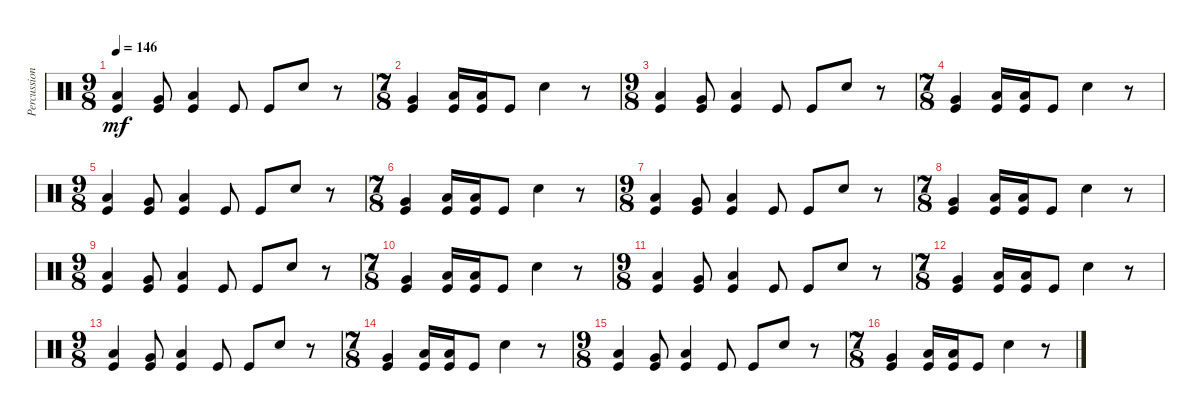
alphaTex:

\track ("Percussion" "Percussion") {instrument percussion}
\staff {score}
\articulation defaults
\ts (9 8)
\tempo 146
\clef neutral
\ks c
("Low Tom (hit)" "Kick (hit)").4{dy mf} ("Very Low Tom (hit)" "Kick (hit)").8 ("Low Floor Tom (hit)" "Kick (hit)").4 "Kick (hit)".8 "Kick (hit)".8 "Snare (hit) 2".8 r.8 |
\ts (7 8)
("Very Low Tom (hit)" "Kick (hit)").4 ("Low Floor Tom (hit)" "Kick (hit)").16 ("Low Floor Tom (hit)" "Kick (hit)").16 "Kick (hit)".8 "Snare (hit) 2".4 r.8 |
\ts (9 8)
("Low Tom (hit)" "Kick (hit)").4 ("Very Low Tom (hit)" "Kick (hit)").8 ("Low Floor Tom (hit)" "Kick (hit)").4 "Kick (hit)".8 "Kick (hit)".8 "Snare (hit) 2".8 r.8 |
\ts (7 8)
("Very Low Tom (hit)" "Kick (hit)").4 ("Low Floor Tom (hit)" "Kick (hit)").16 ("Low Floor Tom (hit)" "Kick (hit)").16 "Kick (hit)".8 "Snare (hit) 2".4 r.8 |
\ts (9 8)
("Low Tom (hit)" "Kick (hit)").4 ("Very Low Tom (hit)" "Kick (hit)").8 ("Low Floor Tom (hit)" "Kick (hit)").4 "Kick (hit)".8 "Kick (hit)".8 "Snare (hit) 2".8 r.8 |
\ts (7 8)
("Very Low Tom (hit)" "Kick (hit)").4 ("Low Floor Tom (hit)" "Kick (hit)").16 ("Low Floor Tom (hit)" "Kick (hit)").16 "Kick (hit)".8 "Snare (hit) 2".4 r.8 |
\ts (9 8)
("Low Tom (hit)" "Kick (hit)").4 ("Very Low Tom (hit)" "Kick (hit)").8 ("Low Floor Tom (hit)" "Kick (hit)").4 "Kick (hit)".8 "Kick (hit)".8 "Snare (hit) 2".8 r.8 |
\ts (7 8)
("Very Low Tom (hit)" "Kick (hit)").4 ("Low Floor Tom (hit)" "Kick (hit)").16 ("Low Floor Tom (hit)" "Kick (hit)").16 "Kick (hit)".8 "Snare (hit) 2".4 r.8 |
\ts (9 8)
("Low Tom (hit)" "Kick (hit)").4 ("Very Low Tom (hit)" "Kick (hit)").8 ("Low Floor Tom (hit)" "Kick (hit)").4 "Kick (hit)".8 "Kick (hit)".8 "Snare (hit) 2".8 r.8 |
\ts (7 8)
("Very Low Tom (hit)" "Kick (hit)").4 ("Low Floor Tom (hit)" "Kick (hit)").16 ("Low Floor Tom (hit)" "Kick (hit)").16 "Kick (hit)".8 "Snare (hit) 2".4 r.8 |
\ts (9 8)
("Low Tom (hit)" "Kick (hit)").4 ("Very Low Tom (hit)" "Kick (hit)").8 ("Low Floor Tom (hit)" "Kick (hit)").4 "Kick (hit)".8 "Kick (hit)".8 "Snare (hit) 2".8 r.8 |
\ts (7 8)
("Very Low Tom (hit)" "Kick (hit)").4 ("Low Floor Tom (hit)" "Kick (hit)").16 ("Low Floor Tom (hit)" "Kick (hit)").16 "Kick (hit)".8 "Snare (hit) 2".4 r.8 |
\ts (9 8)
("Low Tom (hit)" "Kick (hit)").4 ("Very Low Tom (hit)" "Kick (hit)").8 ("Low Floor Tom (hit)" "Kick (hit)").4 "Kick (hit)".8 "Kick (hit)".8 "Snare (hit) 2".8 r.8 |
\ts (7 8)
("Very Low Tom (hit)" "Kick (hit)").4 ("Low Floor Tom (hit)" "Kick (hit)").16 ("Low Floor Tom (hit)" "Kick (hit)").16 "Kick (hit)".8 "Snare (hit) 2".4 r.8 |
\ts (9 8)
("Low Tom (hit)" "Kick (hit)").4 ("Very Low Tom (hit)" "Kick (hit)").8 ("Low Floor Tom (hit)" "Kick (hit)").4 "Kick (hit)".8 "Kick (hit)".8 "Snare (hit) 2".8 r.8 |
\ts (7 8)
("Very Low Tom (hit)" "Kick (hit)").4 ("Low Floor Tom (hit)" "Kick (hit)").16 ("Low Floor Tom (hit)" "Kick (hit)").16 "Kick (hit)".8 "Snare (hit) 2".4 r.8
